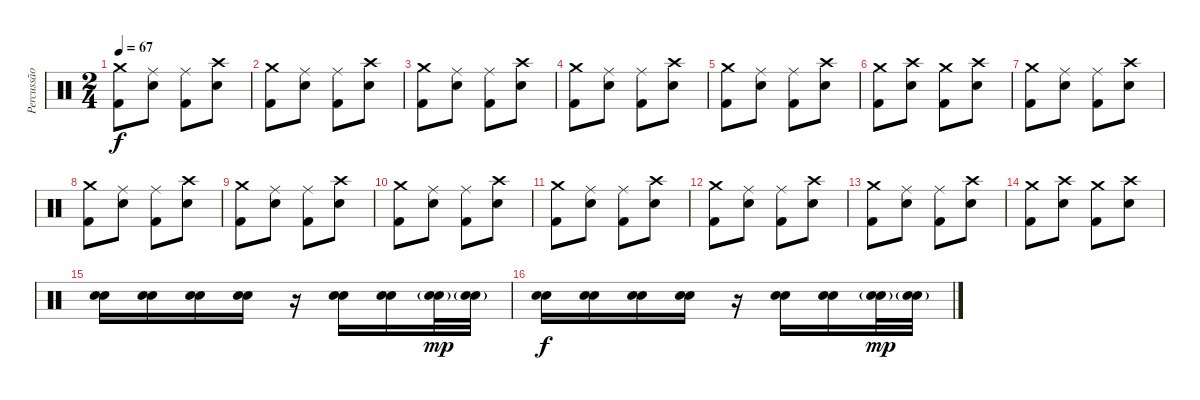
\track ("Percussão" "Percussão") {instrument percussion}
\staff {score}
\articulation defaults
\ts (2 4)
\tempo 67
\clef neutral
\ks c
("Crash medium (hit)" "Kick (hit) 2").8{dy f} ("Ride (middle)" "Snare (hit) 2").8 ("Ride (middle)" "Kick (hit) 2").8 ("Crash high (hit)" "Snare (hit) 2").8 |
("Crash medium (hit)" "Kick (hit) 2").8 ("Ride (middle)" "Snare (hit) 2").8 ("Ride (middle)" "Kick (hit) 2").8 ("Crash high (hit)" "Snare (hit) 2").8 |
("Crash medium (hit)" "Kick (hit) 2").8 ("Ride (middle)" "Snare (hit) 2").8 ("Ride (middle)" "Kick (hit) 2").8 ("Crash high (hit)" "Snare (hit) 2").8 |
("Crash medium (hit)" "Kick (hit) 2").8 ("Ride (middle)" "Snare (hit) 2").8 ("Ride (middle)" "Kick (hit) 2").8 ("Crash high (hit)" "Snare (hit) 2").8 |
("Crash medium (hit)" "Kick (hit) 2").8 ("Ride (middle)" "Snare (hit) 2").8 ("Ride (middle)" "Kick (hit) 2").8 ("Crash high (hit)" "Snare (hit) 2").8 |
("Crash medium (hit)" "Kick (hit) 2").8 ("Crash high (hit)" "Snare (hit) 2").8 ("Crash medium (hit)" "Kick (hit) 2").8 ("Crash high (hit)" "Snare (hit) 2").8 |
("Crash medium (hit)" "Kick (hit) 2").8 ("Ride (middle)" "Snare (hit) 2").8 ("Ride (middle)" "Kick (hit) 2").8 ("Crash high (hit)" "Snare (hit) 2").8 |
("Crash medium (hit)" "Kick (hit) 2").8 ("Ride (middle)" "Snare (hit) 2").8 ("Ride (middle)" "Kick (hit) 2").8 ("Crash high (hit)" "Snare (hit) 2").8 |
("Crash medium (hit)" "Kick (hit) 2").8 ("Ride (middle)" "Snare (hit) 2").8 ("Ride (middle)" "Kick (hit) 2").8 ("Crash high (hit)" "Snare (hit) 2").8 |
("Crash medium (hit)" "Kick (hit) 2").8 ("Ride (middle)" "Snare (hit) 2").8 ("Ride (middle)" "Kick (hit) 2").8 ("Crash high (hit)" "Snare (hit) 2").8 |
("Crash medium (hit)" "Kick (hit) 2").8 ("Ride (middle)" "Snare (hit) 2").8 ("Ride (middle)" "Kick (hit) 2").8 ("Crash high (hit)" "Snare (hit) 2").8 |
("Crash medium (hit)" "Kick (hit) 2").8 ("Ride (middle)" "Snare (hit) 2").8 ("Ride (middle)" "Kick (hit) 2").8 ("Crash high (hit)" "Snare (hit) 2").8 |
("Crash medium (hit)" "Kick (hit) 2").8 ("Ride (middle)" "Snare (hit) 2").8 ("Ride (middle)" "Kick (hit) 2").8 ("Crash high (hit)" "Snare (hit) 2").8 |
("Crash medium (hit)" "Kick (hit) 2").8 ("Crash high (hit)" "Snare (hit) 2").8 ("Crash medium (hit)" "Kick (hit) 2").8 ("Crash high (hit)" "Snare (hit) 2").8 |
("Snare (hit) 2" "Electric Snare (hit)").16 ("Snare (hit) 2" "Electric Snare (hit)").16 ("Snare (hit) 2" "Electric Snare (hit)").16 ("Snare (hit) 2" "Electric Snare (hit)").16 r.16 ("Snare (hit) 2" "Electric Snare (hit)").16 ("Snare (hit) 2" "Electric Snare (hit)").16 ("Snare (hit) 2"{g} "Electric Snare (hit)"{g}).32{dy mp} ("Snare (hit) 2"{g} "Electric Snare (hit)"{g}).32 |
("Snare (hit) 2" "Electric Snare (hit)").16{dy f} ("Snare (hit) 2" "Electric Snare (hit)").16 ("Snare (hit) 2" "Electric Snare (hit)").16 ("Snare (hit) 2" "Electric Snare (hit)").16 r.16 ("Snare (hit) 2" "Electric Snare (hit)").16 ("Snare (hit) 2" "Electric Snare (hit)").16 ("Snare (hit) 2"{g} "Electric Snare (hit)"{g}).32{dy mp} ("Snare (hit) 2"{g} "Electric Snare (hit)"{g}).32
